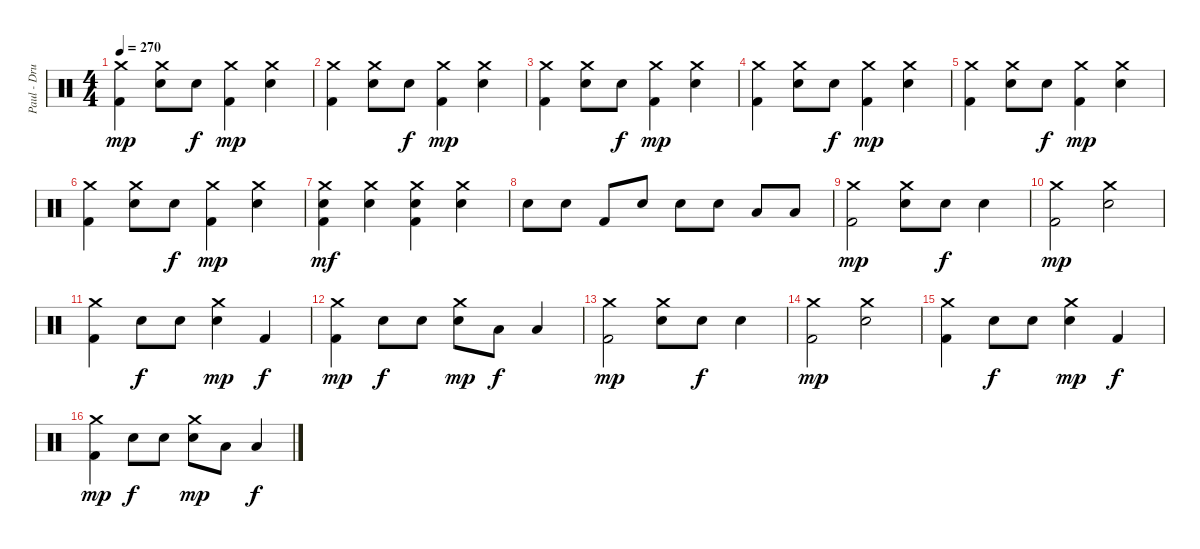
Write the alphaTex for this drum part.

\track ("Paul - Drums" "Paul - Dru") {instrument percussion}
\staff {score}
\articulation defaults
\ts (4 4)
\tempo 270
\clef neutral
\ks c
("Crash medium (hit)" "Kick (hit) 2").4{dy mp} ("Crash medium (hit)" "Electric Snare (hit)").8 "Electric Snare (hit)".8{dy f} ("Crash medium (hit)" "Kick (hit) 2").4{dy mp} ("Crash medium (hit)" "Electric Snare (hit)").4 |
("Crash medium (hit)" "Kick (hit) 2").4 ("Crash medium (hit)" "Electric Snare (hit)").8 "Electric Snare (hit)".8{dy f} ("Crash medium (hit)" "Kick (hit) 2").4{dy mp} ("Crash medium (hit)" "Electric Snare (hit)").4 |
("Crash medium (hit)" "Kick (hit) 2").4 ("Crash medium (hit)" "Electric Snare (hit)").8 "Electric Snare (hit)".8{dy f} ("Crash medium (hit)" "Kick (hit) 2").4{dy mp} ("Crash medium (hit)" "Electric Snare (hit)").4 |
("Crash medium (hit)" "Kick (hit) 2").4 ("Crash medium (hit)" "Electric Snare (hit)").8 "Electric Snare (hit)".8{dy f} ("Crash medium (hit)" "Kick (hit) 2").4{dy mp} ("Crash medium (hit)" "Electric Snare (hit)").4 |
("Crash medium (hit)" "Kick (hit) 2").4 ("Crash medium (hit)" "Electric Snare (hit)").8 "Electric Snare (hit)".8{dy f} ("Crash medium (hit)" "Kick (hit) 2").4{dy mp} ("Crash medium (hit)" "Electric Snare (hit)").4 |
("Crash medium (hit)" "Kick (hit) 2").4 ("Crash medium (hit)" "Electric Snare (hit)").8 "Electric Snare (hit)".8{dy f} ("Crash medium (hit)" "Kick (hit) 2").4{dy mp} ("Crash medium (hit)" "Electric Snare (hit)").4 |
("Crash medium (hit)" "Electric Snare (hit)" "Kick (hit) 2").4{dy mf} ("Crash medium (hit)" "Electric Snare (hit)").4 ("Crash medium (hit)" "Electric Snare (hit)" "Kick (hit) 2").4 ("Crash medium (hit)" "Electric Snare (hit)").4 |
"Electric Snare (hit)".8 "Electric Snare (hit)".8 "Kick (hit) 2".8 "Electric Snare (hit)".8 "Electric Snare (hit)".8 "Electric Snare (hit)".8 "Low Tom (hit)".8 "Low Floor Tom (hit)".8 |
("Crash medium (hit)" "Kick (hit) 2").2{dy mp} ("Crash medium (hit)" "Electric Snare (hit)").8 "Electric Snare (hit)".8{dy f} "Electric Snare (hit)".4 |
("Crash medium (hit)" "Kick (hit) 2").2{dy mp} ("Crash medium (hit)" "Electric Snare (hit)").2 |
("Crash medium (hit)" "Kick (hit) 2").4 "Electric Snare (hit)".8{dy f} "Electric Snare (hit)".8 ("Crash medium (hit)" "Electric Snare (hit)").4{dy mp} "Kick (hit) 2".4{dy f} |
("Crash medium (hit)" "Kick (hit) 2").4{dy mp} "Electric Snare (hit)".8{dy f} "Electric Snare (hit)".8 ("Crash medium (hit)" "Electric Snare (hit)").8{dy mp} "Low Floor Tom (hit)".8{dy f} "Low Floor Tom (hit)".4 |
("Crash medium (hit)" "Kick (hit) 2").2{dy mp} ("Crash medium (hit)" "Electric Snare (hit)").8 "Electric Snare (hit)".8{dy f} "Electric Snare (hit)".4 |
("Crash medium (hit)" "Kick (hit) 2").2{dy mp} ("Crash medium (hit)" "Electric Snare (hit)").2 |
("Crash medium (hit)" "Kick (hit) 2").4 "Electric Snare (hit)".8{dy f} "Electric Snare (hit)".8 ("Crash medium (hit)" "Electric Snare (hit)").4{dy mp} "Kick (hit) 2".4{dy f} |
("Crash medium (hit)" "Kick (hit) 2").4{dy mp} "Electric Snare (hit)".8{dy f} "Electric Snare (hit)".8 ("Crash medium (hit)" "Electric Snare (hit)").8{dy mp} "Low Floor Tom (hit)".8 "Low Floor Tom (hit)".4{dy f}
